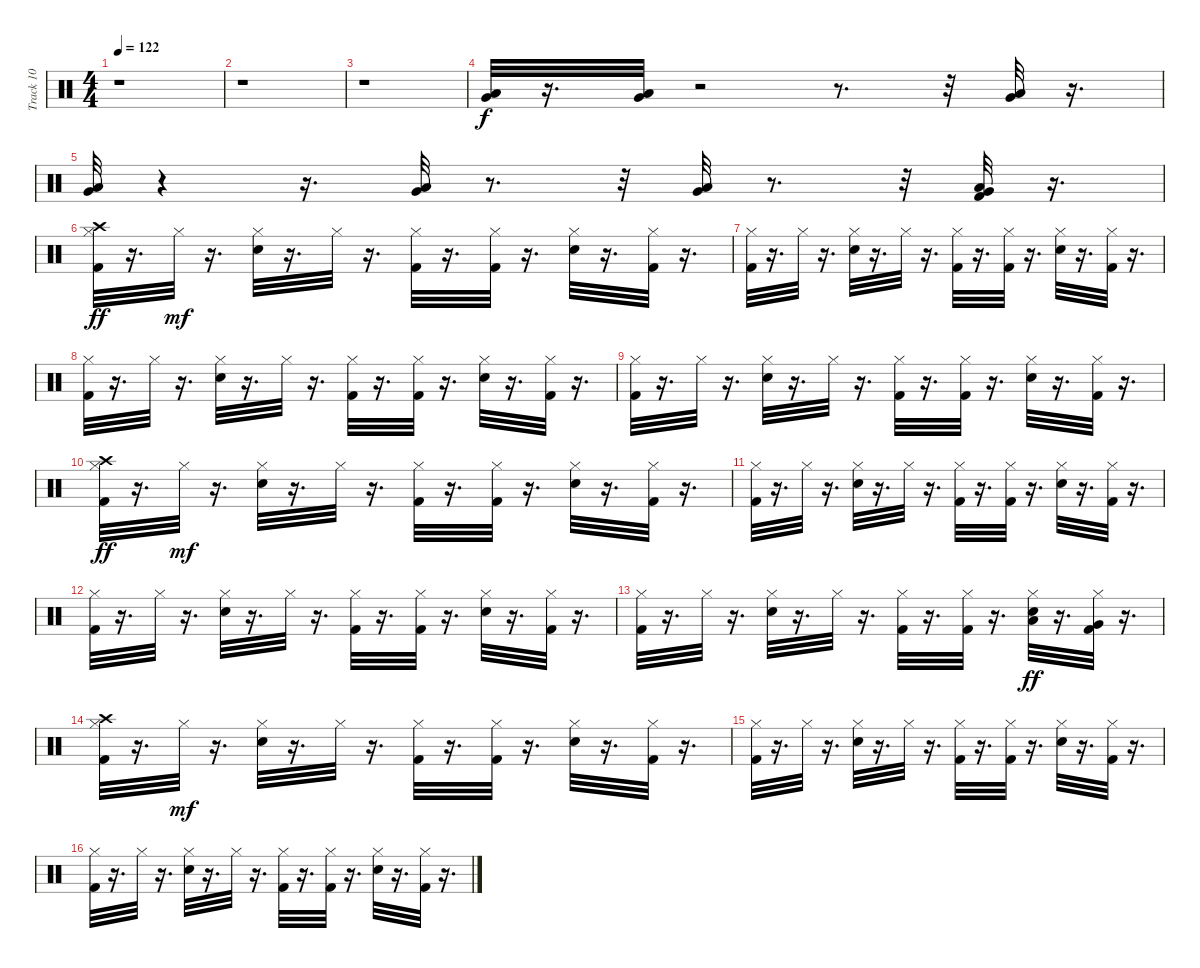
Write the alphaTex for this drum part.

\track ("Track 10" "Track 10") {instrument percussion}
\staff {score}
\articulation defaults
\ts (4 4)
\tempo 122
\clef neutral
\ks c
r.1{dy ff} |
r.1 |
r.1 |
("Low Floor Tom (hit)" "Very Low Tom (hit)").32{dy f} r.16{d} ("Low Floor Tom (hit)" "Very Low Tom (hit)").32 r.2 r.8{d} r.32 ("Low Floor Tom (hit)" "Very Low Tom (hit)").32 r.16{d} |
("Low Floor Tom (hit)" "Very Low Tom (hit)").32 r.4 r.16{d} ("Low Floor Tom (hit)" "Very Low Tom (hit)").32 r.8{d} r.32 ("Low Floor Tom (hit)" "Very Low Tom (hit)").32 r.8{d} r.32 ("Kick (hit) 2" "Low Floor Tom (hit)" "Very Low Tom (hit)").32 r.16{d} |
("Kick (hit) 2" "Hi-Hat (closed)" "Crash high (hit)").32{dy ff} r.16{d} "Hi-Hat (closed)".32{dy mf} r.16{d} ("Electric Snare (hit)" "Hi-Hat (closed)").32 r.16{d} "Hi-Hat (closed)".32 r.16{d} ("Kick (hit) 2" "Hi-Hat (closed)").32 r.16{d} ("Kick (hit) 2" "Hi-Hat (closed)").32 r.16{d} ("Electric Snare (hit)" "Hi-Hat (closed)").32 r.16{d} ("Kick (hit) 2" "Hi-Hat (closed)").32 r.16{d} |
("Kick (hit) 2" "Hi-Hat (closed)").32 r.16{d} "Hi-Hat (closed)".32 r.16{d} ("Electric Snare (hit)" "Hi-Hat (closed)").32 r.16{d} "Hi-Hat (closed)".32 r.16{d} ("Kick (hit) 2" "Hi-Hat (closed)").32 r.16{d} ("Kick (hit) 2" "Hi-Hat (closed)").32 r.16{d} ("Electric Snare (hit)" "Hi-Hat (closed)").32 r.16{d} ("Kick (hit) 2" "Hi-Hat (closed)").32 r.16{d} |
("Kick (hit) 2" "Hi-Hat (closed)").32 r.16{d} "Hi-Hat (closed)".32 r.16{d} ("Electric Snare (hit)" "Hi-Hat (closed)").32 r.16{d} "Hi-Hat (closed)".32 r.16{d} ("Kick (hit) 2" "Hi-Hat (closed)").32 r.16{d} ("Kick (hit) 2" "Hi-Hat (closed)").32 r.16{d} ("Electric Snare (hit)" "Hi-Hat (closed)").32 r.16{d} ("Kick (hit) 2" "Hi-Hat (closed)").32 r.16{d} |
("Kick (hit) 2" "Hi-Hat (closed)").32 r.16{d} "Hi-Hat (closed)".32 r.16{d} ("Electric Snare (hit)" "Hi-Hat (closed)").32 r.16{d} "Hi-Hat (closed)".32 r.16{d} ("Kick (hit) 2" "Hi-Hat (closed)").32 r.16{d} ("Kick (hit) 2" "Hi-Hat (closed)").32 r.16{d} ("Electric Snare (hit)" "Hi-Hat (closed)").32 r.16{d} ("Kick (hit) 2" "Hi-Hat (closed)").32 r.16{d} |
("Kick (hit) 2" "Hi-Hat (closed)" "Crash high (hit)").32{dy ff} r.16{d} "Hi-Hat (closed)".32{dy mf} r.16{d} ("Electric Snare (hit)" "Hi-Hat (closed)").32 r.16{d} "Hi-Hat (closed)".32 r.16{d} ("Kick (hit) 2" "Hi-Hat (closed)").32 r.16{d} ("Kick (hit) 2" "Hi-Hat (closed)").32 r.16{d} ("Electric Snare (hit)" "Hi-Hat (closed)").32 r.16{d} ("Kick (hit) 2" "Hi-Hat (closed)").32 r.16{d} |
("Kick (hit) 2" "Hi-Hat (closed)").32 r.16{d} "Hi-Hat (closed)".32 r.16{d} ("Electric Snare (hit)" "Hi-Hat (closed)").32 r.16{d} "Hi-Hat (closed)".32 r.16{d} ("Kick (hit) 2" "Hi-Hat (closed)").32 r.16{d} ("Kick (hit) 2" "Hi-Hat (closed)").32 r.16{d} ("Electric Snare (hit)" "Hi-Hat (closed)").32 r.16{d} ("Kick (hit) 2" "Hi-Hat (closed)").32 r.16{d} |
("Kick (hit) 2" "Hi-Hat (closed)").32 r.16{d} "Hi-Hat (closed)".32 r.16{d} ("Electric Snare (hit)" "Hi-Hat (closed)").32 r.16{d} "Hi-Hat (closed)".32 r.16{d} ("Kick (hit) 2" "Hi-Hat (closed)").32 r.16{d} ("Kick (hit) 2" "Hi-Hat (closed)").32 r.16{d} ("Electric Snare (hit)" "Hi-Hat (closed)").32 r.16{d} ("Kick (hit) 2" "Hi-Hat (closed)").32 r.16{d} |
("Kick (hit) 2" "Hi-Hat (closed)").32 r.16{d} "Hi-Hat (closed)".32 r.16{d} ("Electric Snare (hit)" "Hi-Hat (closed)").32 r.16{d} "Hi-Hat (closed)".32 r.16{d} ("Kick (hit) 2" "Hi-Hat (closed)").32 r.16{d} ("Kick (hit) 2" "Hi-Hat (closed)").32 r.16{d} ("Electric Snare (hit)" "Hi-Hat (closed)" "Low Tom (hit)").32{dy ff} r.16{d} ("Kick (hit) 2" "Hi-Hat (closed)" "Very Low Tom (hit)").32 r.16{d} |
("Kick (hit) 2" "Hi-Hat (closed)" "Crash high (hit)").32 r.16{d} "Hi-Hat (closed)".32{dy mf} r.16{d} ("Electric Snare (hit)" "Hi-Hat (closed)").32 r.16{d} "Hi-Hat (closed)".32 r.16{d} ("Kick (hit) 2" "Hi-Hat (closed)").32 r.16{d} ("Kick (hit) 2" "Hi-Hat (closed)").32 r.16{d} ("Electric Snare (hit)" "Hi-Hat (closed)").32 r.16{d} ("Kick (hit) 2" "Hi-Hat (closed)").32 r.16{d} |
("Kick (hit) 2" "Hi-Hat (closed)").32 r.16{d} "Hi-Hat (closed)".32 r.16{d} ("Electric Snare (hit)" "Hi-Hat (closed)").32 r.16{d} "Hi-Hat (closed)".32 r.16{d} ("Kick (hit) 2" "Hi-Hat (closed)").32 r.16{d} ("Kick (hit) 2" "Hi-Hat (closed)").32 r.16{d} ("Electric Snare (hit)" "Hi-Hat (closed)").32 r.16{d} ("Kick (hit) 2" "Hi-Hat (closed)").32 r.16{d} |
("Kick (hit) 2" "Hi-Hat (closed)").32 r.16{d} "Hi-Hat (closed)".32 r.16{d} ("Electric Snare (hit)" "Hi-Hat (closed)").32 r.16{d} "Hi-Hat (closed)".32 r.16{d} ("Kick (hit) 2" "Hi-Hat (closed)").32 r.16{d} ("Kick (hit) 2" "Hi-Hat (closed)").32 r.16{d} ("Electric Snare (hit)" "Hi-Hat (closed)").32 r.16{d} ("Kick (hit) 2" "Hi-Hat (closed)").32 r.16{d}
